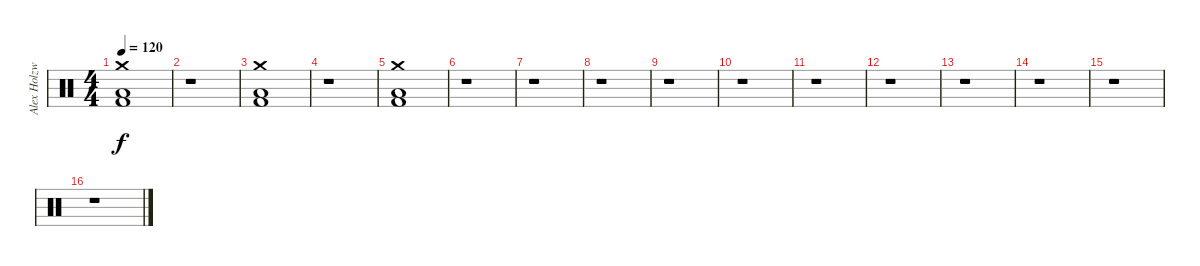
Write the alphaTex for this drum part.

\track ("Alex Holzwarth - Drums" "Alex Holzw") {instrument percussion}
\staff {score}
\articulation defaults
\ts (4 4)
\tempo 120
\clef neutral
\ks c
("Crash medium (hit)" "Low Floor Tom (hit)" "Kick (hit) 2").1{dy f} |
r.1 |
("Crash medium (hit)" "Low Floor Tom (hit)" "Kick (hit) 2").1 |
r.1 |
("Crash medium (hit)" "Low Floor Tom (hit)" "Kick (hit) 2").1 |
r.1 |
r.1 |
r.1 |
r.1 |
r.1 |
r.1 |
r.1 |
r.1 |
r.1 |
r.1 |
r.1
